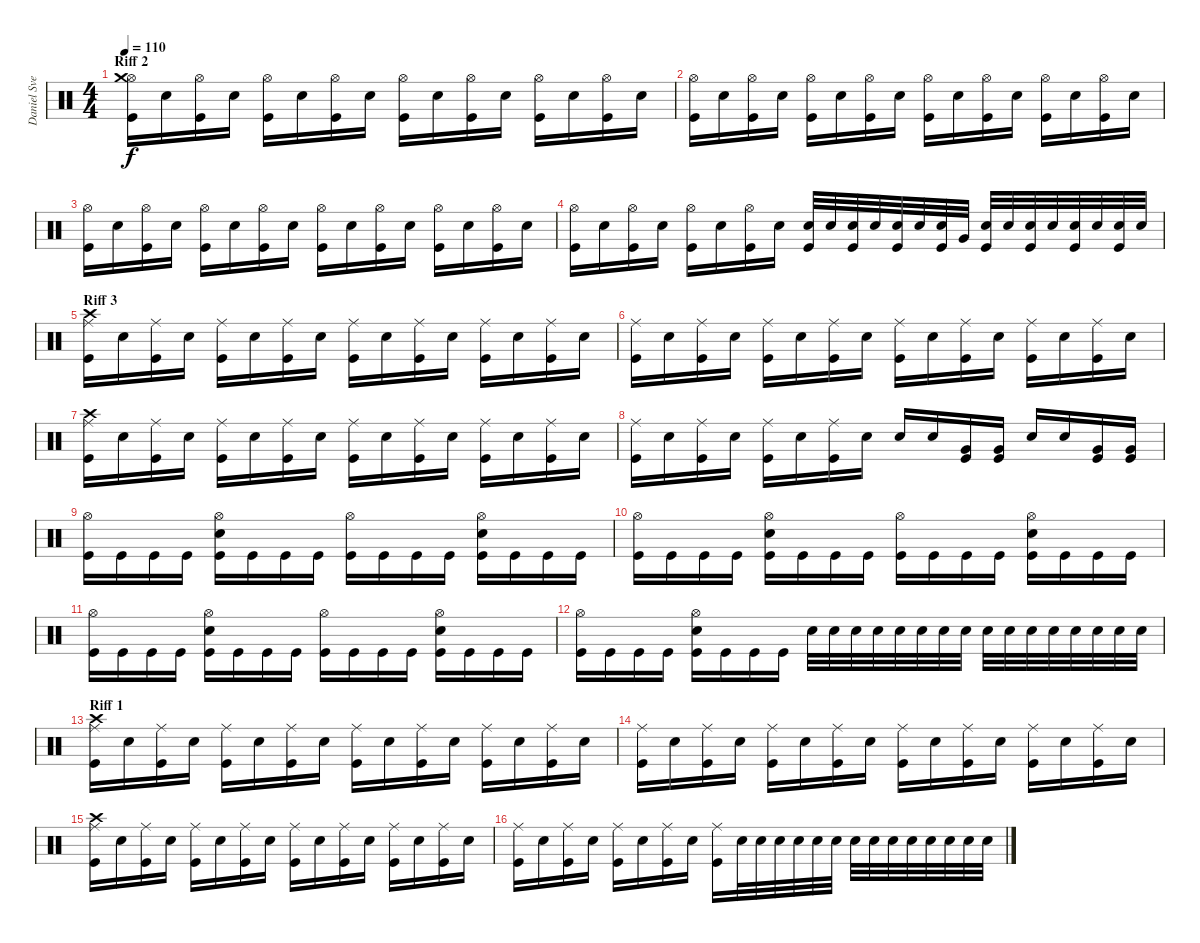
\track ("Daniel Svensson" "Daniel Sve") {instrument percussion}
\staff {score}
\articulation defaults
\ts (4 4)
\section ("" "Riff 2")
\tempo 110
\clef neutral
\ks c
("Hi-Hat (open)" "Crash medium (hit)" "Kick (hit)").16{dy f} "Electric Snare (hit)".16 ("Hi-Hat (open)" "Kick (hit)").16 "Electric Snare (hit)".16 ("Hi-Hat (open)" "Kick (hit)").16 "Electric Snare (hit)".16 ("Hi-Hat (open)" "Kick (hit)").16 "Electric Snare (hit)".16 ("Hi-Hat (open)" "Kick (hit)").16 "Electric Snare (hit)".16 ("Hi-Hat (open)" "Kick (hit)").16 "Electric Snare (hit)".16 ("Hi-Hat (open)" "Kick (hit)").16 "Electric Snare (hit)".16 ("Hi-Hat (open)" "Kick (hit)").16 "Electric Snare (hit)".16 |
("Hi-Hat (open)" "Kick (hit)").16 "Electric Snare (hit)".16 ("Hi-Hat (open)" "Kick (hit)").16 "Electric Snare (hit)".16 ("Hi-Hat (open)" "Kick (hit)").16 "Electric Snare (hit)".16 ("Hi-Hat (open)" "Kick (hit)").16 "Electric Snare (hit)".16 ("Hi-Hat (open)" "Kick (hit)").16 "Electric Snare (hit)".16 ("Hi-Hat (open)" "Kick (hit)").16 "Electric Snare (hit)".16 ("Hi-Hat (open)" "Kick (hit)").16 "Electric Snare (hit)".16 ("Hi-Hat (open)" "Kick (hit)").16 "Electric Snare (hit)".16 |
("Hi-Hat (open)" "Kick (hit)").16 "Electric Snare (hit)".16 ("Hi-Hat (open)" "Kick (hit)").16 "Electric Snare (hit)".16 ("Hi-Hat (open)" "Kick (hit)").16 "Electric Snare (hit)".16 ("Hi-Hat (open)" "Kick (hit)").16 "Electric Snare (hit)".16 ("Hi-Hat (open)" "Kick (hit)").16 "Electric Snare (hit)".16 ("Hi-Hat (open)" "Kick (hit)").16 "Electric Snare (hit)".16 ("Hi-Hat (open)" "Kick (hit)").16 "Electric Snare (hit)".16 ("Hi-Hat (open)" "Kick (hit)").16 "Electric Snare (hit)".16 |
("Hi-Hat (open)" "Kick (hit)").16 "Electric Snare (hit)".16 ("Hi-Hat (open)" "Kick (hit)").16 "Electric Snare (hit)".16 ("Hi-Hat (open)" "Kick (hit)").16 "Electric Snare (hit)".16 ("Hi-Hat (open)" "Kick (hit)").16 "Electric Snare (hit)".16 ("Electric Snare (hit)" "Kick (hit)").32 "Electric Snare (hit)".32 ("Electric Snare (hit)" "Kick (hit)").32 "Electric Snare (hit)".32 ("Electric Snare (hit)" "Kick (hit)").32 "Electric Snare (hit)".32 ("Electric Snare (hit)" "Kick (hit)").32 "Very Low Tom (hit)".32 ("Snare (hit) 2" "Kick (hit)").32 "Snare (hit) 2".32 ("Snare (hit) 2" "Kick (hit)").32 "Snare (hit) 2".32 ("Snare (hit) 2" "Kick (hit)").32 "Snare (hit) 2".32 ("Snare (hit) 2" "Kick (hit)").32 "Snare (hit) 2".32 |
\section ("" "Riff 3")
("Ride (middle)" "Crash high (hit)" "Kick (hit)").16 "Electric Snare (hit)".16 ("Ride (middle)" "Kick (hit)").16 "Electric Snare (hit)".16 ("Ride (middle)" "Kick (hit)").16 "Electric Snare (hit)".16 ("Ride (middle)" "Kick (hit)").16 "Electric Snare (hit)".16 ("Ride (middle)" "Kick (hit)").16 "Electric Snare (hit)".16 ("Ride (middle)" "Kick (hit)").16 "Electric Snare (hit)".16 ("Ride (middle)" "Kick (hit)").16 "Electric Snare (hit)".16 ("Ride (middle)" "Kick (hit)").16 "Electric Snare (hit)".16 |
("Ride (middle)" "Kick (hit)").16 "Electric Snare (hit)".16 ("Ride (middle)" "Kick (hit)").16 "Electric Snare (hit)".16 ("Ride (middle)" "Kick (hit)").16 "Electric Snare (hit)".16 ("Ride (middle)" "Kick (hit)").16 "Electric Snare (hit)".16 ("Ride (middle)" "Kick (hit)").16 "Electric Snare (hit)".16 ("Ride (middle)" "Kick (hit)").16 "Electric Snare (hit)".16 ("Ride (middle)" "Kick (hit)").16 "Electric Snare (hit)".16 ("Ride (middle)" "Kick (hit)").16 "Electric Snare (hit)".16 |
("Ride (middle)" "Crash high (hit)" "Kick (hit)").16 "Electric Snare (hit)".16 ("Ride (middle)" "Kick (hit)").16 "Electric Snare (hit)".16 ("Ride (middle)" "Kick (hit)").16 "Electric Snare (hit)".16 ("Ride (middle)" "Kick (hit)").16 "Electric Snare (hit)".16 ("Ride (middle)" "Kick (hit)").16 "Electric Snare (hit)".16 ("Ride (middle)" "Kick (hit)").16 "Electric Snare (hit)".16 ("Ride (middle)" "Kick (hit)").16 "Electric Snare (hit)".16 ("Ride (middle)" "Kick (hit)").16 "Electric Snare (hit)".16 |
("Ride (middle)" "Kick (hit)").16 "Electric Snare (hit)".16 ("Ride (middle)" "Kick (hit)").16 "Electric Snare (hit)".16 ("Ride (middle)" "Kick (hit)").16 "Electric Snare (hit)".16 ("Ride (middle)" "Kick (hit)").16 "Electric Snare (hit)".16 "Electric Snare (hit)".16 "Electric Snare (hit)".16 ("Very Low Tom (hit)" "Kick (hit)").16 ("Very Low Tom (hit)" "Kick (hit)").16 "Electric Snare (hit)".16 "Electric Snare (hit)".16 ("Very Low Tom (hit)" "Kick (hit)").16 ("Very Low Tom (hit)" "Kick (hit)").16 |
("Hi-Hat (open)" "Kick (hit)").16 "Kick (hit)".16 "Kick (hit)".16 "Kick (hit)".16 ("Hi-Hat (open)" "Electric Snare (hit)" "Kick (hit)").16 "Kick (hit)".16 "Kick (hit)".16 "Kick (hit)".16 ("Hi-Hat (open)" "Kick (hit)").16 "Kick (hit)".16 "Kick (hit)".16 "Kick (hit)".16 ("Hi-Hat (open)" "Electric Snare (hit)" "Kick (hit)").16 "Kick (hit)".16 "Kick (hit)".16 "Kick (hit)".16 |
("Hi-Hat (open)" "Kick (hit)").16 "Kick (hit)".16 "Kick (hit)".16 "Kick (hit)".16 ("Hi-Hat (open)" "Electric Snare (hit)" "Kick (hit)").16 "Kick (hit)".16 "Kick (hit)".16 "Kick (hit)".16 ("Hi-Hat (open)" "Kick (hit)").16 "Kick (hit)".16 "Kick (hit)".16 "Kick (hit)".16 ("Hi-Hat (open)" "Electric Snare (hit)" "Kick (hit)").16 "Kick (hit)".16 "Kick (hit)".16 "Kick (hit)".16 |
("Hi-Hat (open)" "Kick (hit)").16 "Kick (hit)".16 "Kick (hit)".16 "Kick (hit)".16 ("Hi-Hat (open)" "Electric Snare (hit)" "Kick (hit)").16 "Kick (hit)".16 "Kick (hit)".16 "Kick (hit)".16 ("Hi-Hat (open)" "Kick (hit)").16 "Kick (hit)".16 "Kick (hit)".16 "Kick (hit)".16 ("Hi-Hat (open)" "Electric Snare (hit)" "Kick (hit)").16 "Kick (hit)".16 "Kick (hit)".16 "Kick (hit)".16 |
("Hi-Hat (open)" "Kick (hit)").16 "Kick (hit)".16 "Kick (hit)".16 "Kick (hit)".16 ("Hi-Hat (open)" "Electric Snare (hit)" "Kick (hit)").16 "Kick (hit)".16 "Kick (hit)".16 "Kick (hit)".16 "Electric Snare (hit)".32 "Electric Snare (hit)".32 "Electric Snare (hit)".32 "Electric Snare (hit)".32 "Snare (hit) 2".32 "Snare (hit) 2".32 "Snare (hit) 2".32 "Snare (hit) 2".32 "Electric Snare (hit)".32 "Electric Snare (hit)".32 "Electric Snare (hit)".32 "Electric Snare (hit)".32 "Snare (hit) 2".32 "Snare (hit) 2".32 "Snare (hit) 2".32 "Snare (hit) 2".32 |
\section ("" "Riff 1")
("Ride (middle)" "Crash high (hit)" "Kick (hit)").16 "Electric Snare (hit)".16 ("Ride (middle)" "Kick (hit)").16 "Electric Snare (hit)".16 ("Ride (middle)" "Kick (hit)").16 "Electric Snare (hit)".16 ("Ride (middle)" "Kick (hit)").16 "Electric Snare (hit)".16 ("Ride (middle)" "Kick (hit)").16 "Electric Snare (hit)".16 ("Ride (middle)" "Kick (hit)").16 "Electric Snare (hit)".16 ("Ride (middle)" "Kick (hit)").16 "Electric Snare (hit)".16 ("Ride (middle)" "Kick (hit)").16 "Electric Snare (hit)".16 |
("Ride (middle)" "Kick (hit)").16 "Electric Snare (hit)".16 ("Ride (middle)" "Kick (hit)").16 "Electric Snare (hit)".16 ("Ride (middle)" "Kick (hit)").16 "Electric Snare (hit)".16 ("Ride (middle)" "Kick (hit)").16 "Electric Snare (hit)".16 ("Ride (middle)" "Kick (hit)").16 "Electric Snare (hit)".16 ("Ride (middle)" "Kick (hit)").16 "Electric Snare (hit)".16 ("Ride (middle)" "Kick (hit)").16 "Electric Snare (hit)".16 ("Ride (middle)" "Kick (hit)").16 "Electric Snare (hit)".16 |
("Ride (middle)" "Crash high (hit)" "Kick (hit)").16 "Electric Snare (hit)".16 ("Ride (middle)" "Kick (hit)").16 "Electric Snare (hit)".16 ("Ride (middle)" "Kick (hit)").16 "Electric Snare (hit)".16 ("Ride (middle)" "Kick (hit)").16 "Electric Snare (hit)".16 ("Ride (middle)" "Kick (hit)").16 "Electric Snare (hit)".16 ("Ride (middle)" "Kick (hit)").16 "Electric Snare (hit)".16 ("Ride (middle)" "Kick (hit)").16 "Electric Snare (hit)".16 ("Ride (middle)" "Kick (hit)").16 "Electric Snare (hit)".16 |
("Ride (middle)" "Kick (hit)").16 "Electric Snare (hit)".16 ("Ride (middle)" "Kick (hit)").16 "Electric Snare (hit)".16 ("Ride (middle)" "Kick (hit)").16 "Electric Snare (hit)".16 ("Ride (middle)" "Kick (hit)").16 "Electric Snare (hit)".16 ("Ride (middle)" "Kick (hit)").16 "Electric Snare (hit)".32 "Electric Snare (hit)".32 "Electric Snare (hit)".32 "Electric Snare (hit)".32 "Electric Snare (hit)".32 "Electric Snare (hit)".32 "Electric Snare (hit)".32 "Electric Snare (hit)".32 "Electric Snare (hit)".32 "Electric Snare (hit)".32 "Electric Snare (hit)".32 "Electric Snare (hit)".32 "Electric Snare (hit)".32 "Electric Snare (hit)".32
